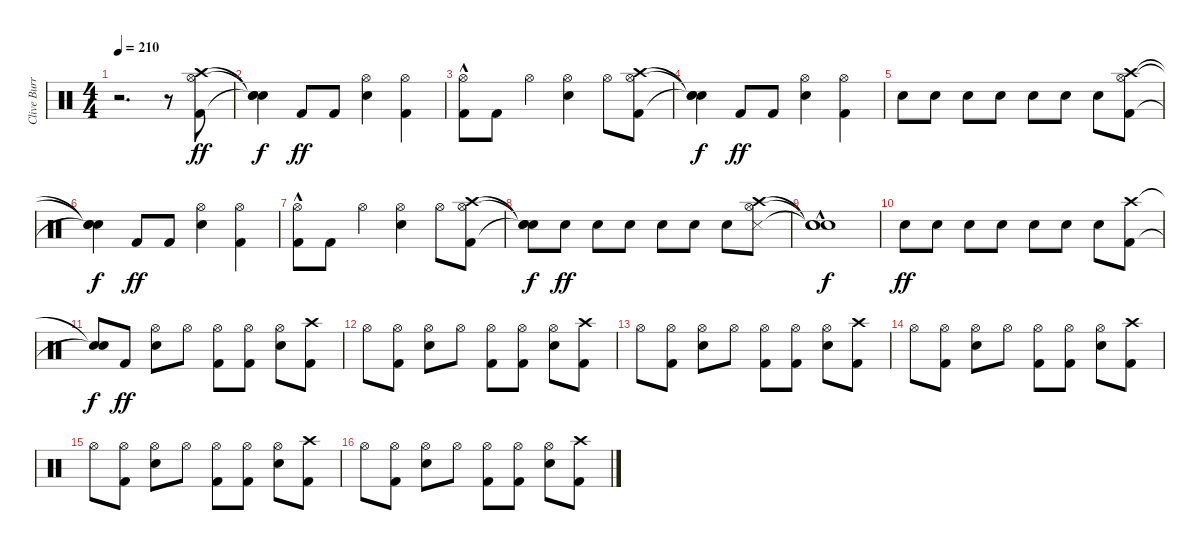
\track ("Clive Burr" "Clive Burr") {instrument percussion}
\staff {score}
\articulation defaults
\ts (4 4)
\tempo 210
\clef neutral
\ks c
r.2{d dy ff} r.8 ("Kick (hit) 2" "Hi-Hat (open)" "Crash high (hit)").8 |
("Snare (hit)"{t} "Snare (hit)"{t} "Snare (hit)"{t}).4{dy f} "Kick (hit) 2".8{dy ff} "Kick (hit) 2".8 ("Snare (hit) 2" "Hi-Hat (open)").4 ("Kick (hit) 2" "Hi-Hat (open)").4 |
("Kick (hit) 2" "Hi-Hat (open)"{hac}).8 "Kick (hit) 2".8 "Hi-Hat (open)".4 ("Snare (hit) 2" "Hi-Hat (open)").4 "Hi-Hat (open)".8 ("Kick (hit) 2" "Hi-Hat (open)" "Crash high (hit)").8 |
("Snare (hit)"{t} "Snare (hit)"{t} "Snare (hit)"{t}).4{dy f} "Kick (hit) 2".8{dy ff} "Kick (hit) 2".8 ("Snare (hit) 2" "Hi-Hat (open)").4 ("Kick (hit) 2" "Hi-Hat (open)").4 |
"Snare (hit) 2".8 "Snare (hit) 2".8 "Snare (hit) 2".8 "Snare (hit) 2".8 "Snare (hit) 2".8 "Snare (hit) 2".8 "Snare (hit) 2".8 ("Kick (hit) 2" "Hi-Hat (open)" "Crash high (hit)").8 |
("Snare (hit)"{t} "Snare (hit)"{t} "Snare (hit)"{t}).4{dy f} "Kick (hit) 2".8{dy ff} "Kick (hit) 2".8 ("Snare (hit) 2" "Hi-Hat (open)").4 ("Kick (hit) 2" "Hi-Hat (open)").4 |
("Kick (hit) 2" "Hi-Hat (open)"{hac}).8 "Kick (hit) 2".8 "Hi-Hat (open)".4 ("Snare (hit) 2" "Hi-Hat (open)").4 "Hi-Hat (open)".8 ("Kick (hit) 2" "Hi-Hat (open)" "Crash high (hit)").8 |
("Snare (hit)"{t} "Snare (hit)"{t} "Snare (hit)"{t}).8{dy f} "Snare (hit) 2".8{dy ff} "Snare (hit) 2".8 "Snare (hit) 2".8 "Snare (hit) 2".8 "Snare (hit) 2".8 "Snare (hit) 2".8 ("Snare (side stick) 3" "Hi-Hat (open)" "Crash high (hit)").8 |
("Snare (hit)"{t} "Snare (hit)"{hac t} "Snare (hit)"{hac t}).1{dy f} |
"Snare (hit) 2".8{dy ff} "Snare (hit) 2".8 "Snare (hit) 2".8 "Snare (hit) 2".8 "Snare (hit) 2".8 "Snare (hit) 2".8 "Snare (hit) 2".8 ("Kick (hit) 2" "Crash high (hit)").8 |
("Snare (hit)"{t} "Snare (hit)"{t}).8{dy f} "Kick (hit) 2".8{dy ff} ("Snare (hit) 2" "Hi-Hat (open)").8 "Hi-Hat (open)".8 ("Kick (hit) 2" "Hi-Hat (open)").8 ("Kick (hit) 2" "Hi-Hat (open)").8 ("Snare (hit) 2" "Hi-Hat (open)").8 ("Kick (hit) 2" "Crash high (hit)").8 |
"Hi-Hat (open)".8 ("Kick (hit) 2" "Hi-Hat (open)").8 ("Snare (hit) 2" "Hi-Hat (open)").8 "Hi-Hat (open)".8 ("Kick (hit) 2" "Hi-Hat (open)").8 ("Kick (hit) 2" "Hi-Hat (open)").8 ("Snare (hit) 2" "Hi-Hat (open)").8 ("Kick (hit) 2" "Crash high (hit)").8 |
"Hi-Hat (open)".8 ("Kick (hit) 2" "Hi-Hat (open)").8 ("Snare (hit) 2" "Hi-Hat (open)").8 "Hi-Hat (open)".8 ("Kick (hit) 2" "Hi-Hat (open)").8 ("Kick (hit) 2" "Hi-Hat (open)").8 ("Snare (hit) 2" "Hi-Hat (open)").8 ("Kick (hit) 2" "Crash high (hit)").8 |
"Hi-Hat (open)".8 ("Kick (hit) 2" "Hi-Hat (open)").8 ("Snare (hit) 2" "Hi-Hat (open)").8 "Hi-Hat (open)".8 ("Kick (hit) 2" "Hi-Hat (open)").8 ("Kick (hit) 2" "Hi-Hat (open)").8 ("Snare (hit) 2" "Hi-Hat (open)").8 ("Kick (hit) 2" "Crash high (hit)").8 |
"Hi-Hat (open)".8 ("Kick (hit) 2" "Hi-Hat (open)").8 ("Snare (hit) 2" "Hi-Hat (open)").8 "Hi-Hat (open)".8 ("Kick (hit) 2" "Hi-Hat (open)").8 ("Kick (hit) 2" "Hi-Hat (open)").8 ("Snare (hit) 2" "Hi-Hat (open)").8 ("Kick (hit) 2" "Crash high (hit)").8 |
"Hi-Hat (open)".8 ("Kick (hit) 2" "Hi-Hat (open)").8 ("Snare (hit) 2" "Hi-Hat (open)").8 "Hi-Hat (open)".8 ("Kick (hit) 2" "Hi-Hat (open)").8 ("Kick (hit) 2" "Hi-Hat (open)").8 ("Snare (hit) 2" "Hi-Hat (open)").8 ("Kick (hit) 2" "Crash high (hit)").8
